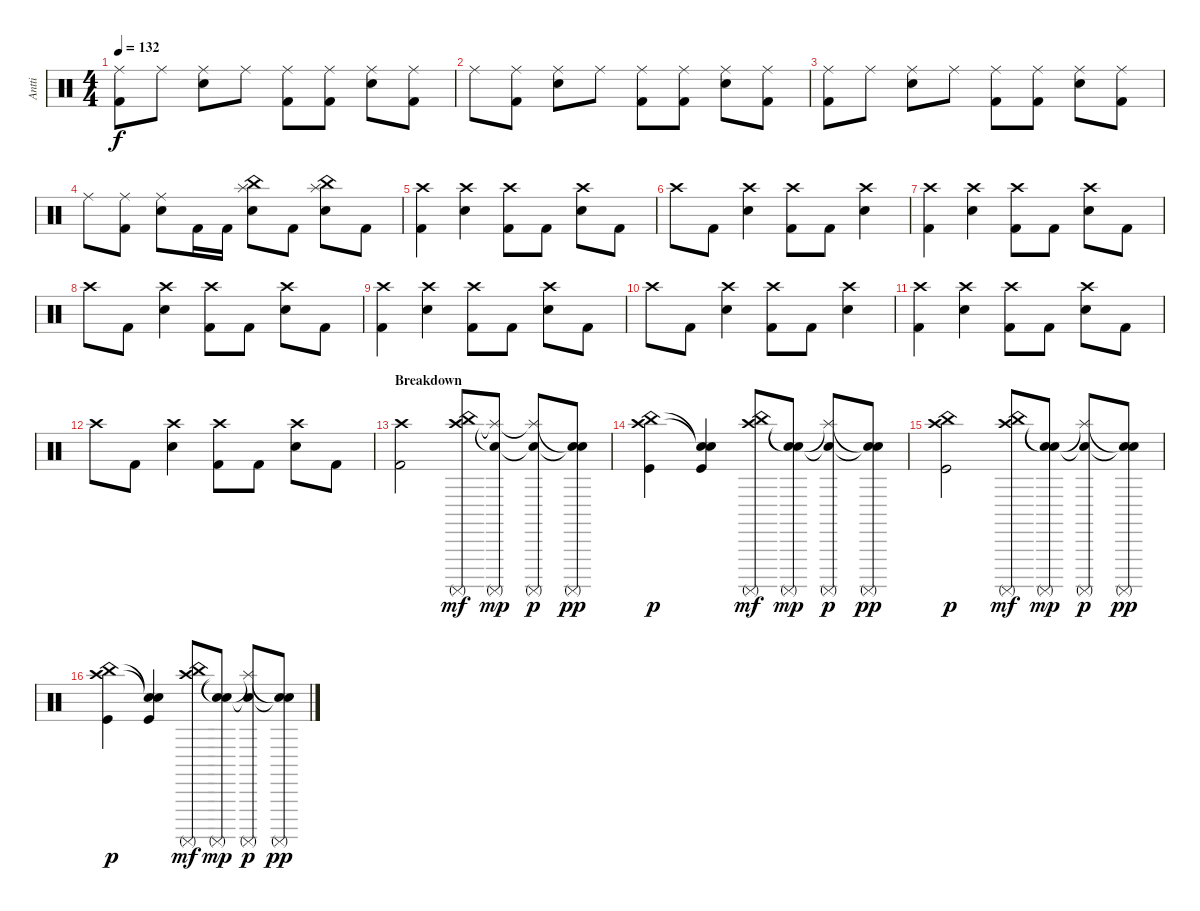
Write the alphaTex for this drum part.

\track ("Antti" "Antti") {instrument percussion}
\staff {score}
\articulation defaults
\ts (4 4)
\tempo 132
\clef neutral
\ks c
("Ride (middle)" "Kick (hit) 2").8{dy f} "Ride (middle)".8 ("Ride (middle)" "Electric Snare (hit)").8 "Ride (middle)".8 ("Ride (middle)" "Kick (hit) 2").8 ("Ride (middle)" "Kick (hit) 2").8 ("Ride (middle)" "Electric Snare (hit)").8 ("Ride (middle)" "Kick (hit) 2").8 |
"Ride (middle)".8 ("Ride (middle)" "Kick (hit) 2").8 ("Ride (middle)" "Electric Snare (hit)").8 "Ride (middle)".8 ("Ride (middle)" "Kick (hit) 2").8 ("Ride (middle)" "Kick (hit) 2").8 ("Ride (middle)" "Electric Snare (hit)").8 ("Ride (middle)" "Kick (hit) 2").8 |
("Ride (middle)" "Kick (hit) 2").8 "Ride (middle)".8 ("Ride (middle)" "Electric Snare (hit)").8 "Ride (middle)".8 ("Ride (middle)" "Kick (hit) 2").8 ("Ride (middle)" "Kick (hit) 2").8 ("Ride (middle)" "Electric Snare (hit)").8 ("Ride (middle)" "Kick (hit) 2").8 |
"Ride (middle)".8 ("Ride (middle)" "Kick (hit) 2").8 ("Ride (middle)" "Electric Snare (hit)").8 "Kick (hit) 2".16 "Kick (hit) 2".16 ("China (hit)" "Splash (hit)" "Electric Snare (hit)").8 "Kick (hit) 2".8 ("China (hit)" "Splash (hit)" "Electric Snare (hit)").8 "Kick (hit) 2".8 |
("Crash high (hit)" "Kick (hit) 2").4 ("Crash high (hit)" "Electric Snare (hit)").4 ("Crash high (hit)" "Kick (hit) 2").8 "Kick (hit) 2".8 ("Crash high (hit)" "Electric Snare (hit)").8 "Kick (hit) 2".8 |
"Crash high (hit)".8 "Kick (hit) 2".8 ("Crash high (hit)" "Electric Snare (hit)").4 ("Crash high (hit)" "Kick (hit) 2").8 "Kick (hit) 2".8 ("Crash high (hit)" "Electric Snare (hit)").4 |
("Crash high (hit)" "Kick (hit) 2").4 ("Crash high (hit)" "Electric Snare (hit)").4 ("Crash high (hit)" "Kick (hit) 2").8 "Kick (hit) 2".8 ("Crash high (hit)" "Electric Snare (hit)").8 "Kick (hit) 2".8 |
"Crash high (hit)".8 "Kick (hit) 2".8 ("Crash high (hit)" "Electric Snare (hit)").4 ("Crash high (hit)" "Kick (hit) 2").8 "Kick (hit) 2".8 ("Crash high (hit)" "Electric Snare (hit)").8 "Kick (hit) 2".8 |
("Crash high (hit)" "Kick (hit) 2").4 ("Crash high (hit)" "Electric Snare (hit)").4 ("Crash high (hit)" "Kick (hit) 2").8 "Kick (hit) 2".8 ("Crash high (hit)" "Electric Snare (hit)").8 "Kick (hit) 2".8 |
"Crash high (hit)".8 "Kick (hit) 2".8 ("Crash high (hit)" "Electric Snare (hit)").4 ("Crash high (hit)" "Kick (hit) 2").8 "Kick (hit) 2".8 ("Crash high (hit)" "Electric Snare (hit)").4 |
("Crash high (hit)" "Kick (hit) 2").4 ("Crash high (hit)" "Electric Snare (hit)").4 ("Crash high (hit)" "Kick (hit) 2").8 "Kick (hit) 2".8 ("Crash high (hit)" "Electric Snare (hit)").8 "Kick (hit) 2".8 |
"Crash high (hit)".8 "Kick (hit) 2".8 ("Crash high (hit)" "Electric Snare (hit)").4 ("Crash high (hit)" "Kick (hit) 2").8 "Kick (hit) 2".8 ("Crash high (hit)" "Electric Snare (hit)").8 "Kick (hit) 2".8 |
\section ("" "Breakdown")
("Crash high (hit)" "Kick (hit) 2").2 ("China (hit)" "Crash high (hit)" "Surdo (mute)").8{dy mf} ("Snare (hit)"{t} "Splash (hit)"{t} "Surdo (mute)").8{dy mp} ("Snare (hit)"{t} "Splash (hit)"{t} "Surdo (mute)").8{dy p} ("Snare (hit)"{t} "Snare (hit)"{t} "Surdo (mute)").8{dy pp} |
("China (hit)" "Crash high (hit)" "Kick (hit)").4{dy p} ("Snare (hit)"{t} "Snare (hit)"{t} "Kick (hit)").4 ("China (hit)" "Crash high (hit)" "Surdo (mute)").8{dy mf} ("Snare (hit)"{t} "Snare (hit)"{t} "Surdo (mute)").8{dy mp} ("Snare (hit)"{t} "Splash (hit)"{t} "Surdo (mute)").8{dy p} ("Snare (hit)"{t} "Snare (hit)"{t} "Surdo (mute)").8{dy pp} |
("China (hit)" "Crash high (hit)" "Kick (hit)").2{dy p} ("China (hit)" "Crash high (hit)" "Surdo (mute)").8{dy mf} ("Snare (hit)"{t} "Snare (hit)"{t} "Surdo (mute)").8{dy mp} ("Snare (hit)"{t} "Splash (hit)"{t} "Surdo (mute)").8{dy p} ("Snare (hit)"{t} "Snare (hit)"{t} "Surdo (mute)").8{dy pp} |
("China (hit)" "Crash high (hit)" "Kick (hit)").4{dy p} ("Snare (hit)"{t} "Snare (hit)"{t} "Kick (hit)").4 ("China (hit)" "Crash high (hit)" "Surdo (mute)").8{dy mf} ("Snare (hit)"{t} "Snare (hit)"{t} "Surdo (mute)").8{dy mp} ("Snare (hit)"{t} "Splash (hit)"{t} "Surdo (mute)").8{dy p} ("Snare (hit)"{t} "Snare (hit)"{t} "Surdo (mute)").8{dy pp}
